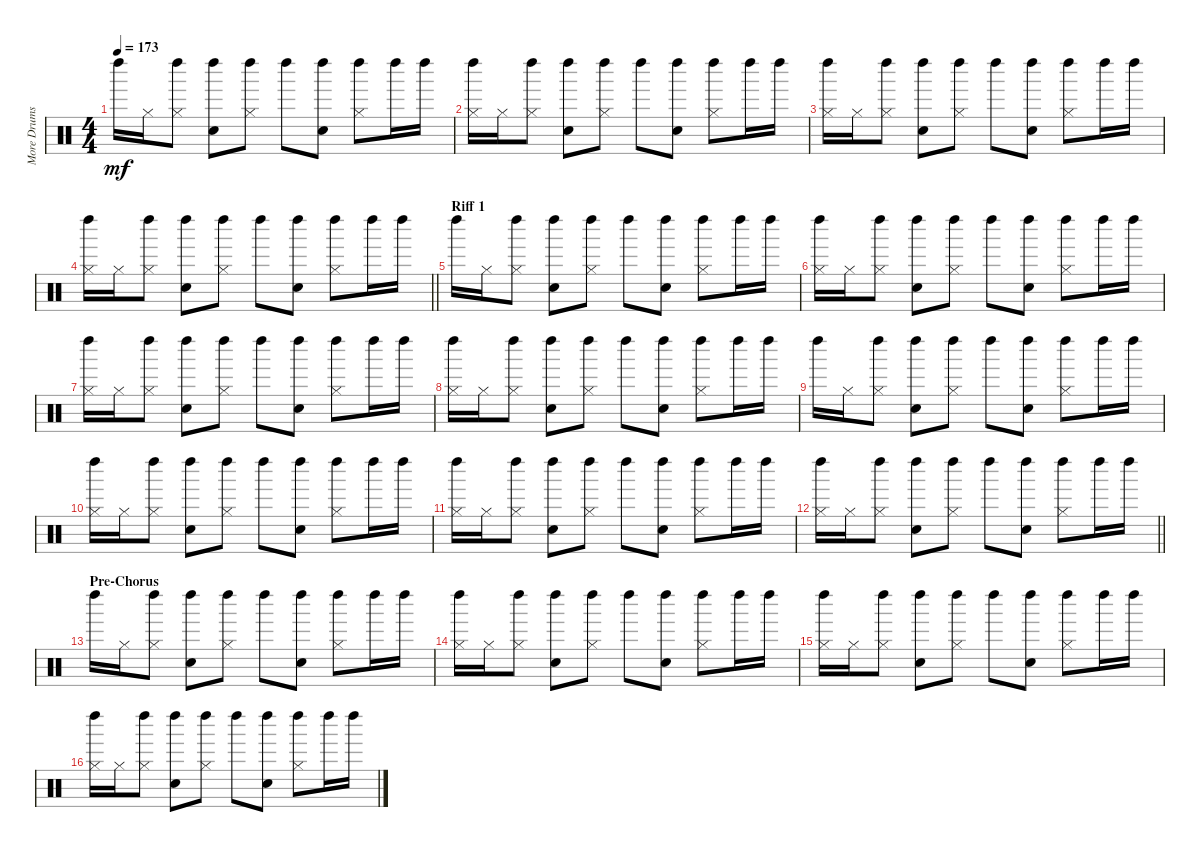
\track ("More Drums" "More Drums") {instrument percussion}
\staff {score}
\articulation defaults
\ts (4 4)
\tempo 173
\clef neutral
\ks c "Left Maraca (hit)".16{dy mf} "Hi-Hat (closed)".16
("Hi-Hat (closed)" "Left Maraca (hit)").8 ("Snare (hit) 2" "Left Maraca (hit)").8 ("Hi-Hat (closed)" "Left Maraca (hit)").8 "Left Maraca (hit)".8 ("Snare (hit) 2" "Left Maraca (hit)").8 ("Hi-Hat (closed)" "Left Maraca (hit)").8 "Left Maraca (hit)".16 "Left Maraca (hit)".16 |
("Hi-Hat (closed)" "Left Maraca (hit)").16 "Hi-Hat (closed)".16 ("Hi-Hat (closed)" "Left Maraca (hit)").8 ("Snare (hit) 2" "Left Maraca (hit)").8 ("Hi-Hat (closed)" "Left Maraca (hit)").8 "Left Maraca (hit)".8 ("Snare (hit) 2" "Left Maraca (hit)").8 ("Hi-Hat (closed)" "Left Maraca (hit)").8 "Left Maraca (hit)".16 "Left Maraca (hit)".16 |
("Hi-Hat (closed)" "Left Maraca (hit)").16 "Hi-Hat (closed)".16 ("Hi-Hat (closed)" "Left Maraca (hit)").8 ("Snare (hit) 2" "Left Maraca (hit)").8 ("Hi-Hat (closed)" "Left Maraca (hit)").8 "Left Maraca (hit)".8 ("Snare (hit) 2" "Left Maraca (hit)").8 ("Hi-Hat (closed)" "Left Maraca (hit)").8 "Left Maraca (hit)".16 "Left Maraca (hit)".16 |
\barLineRight lightlight
("Hi-Hat (closed)" "Left Maraca (hit)").16 "Hi-Hat (closed)".16 ("Hi-Hat (closed)" "Left Maraca (hit)").8 ("Snare (hit) 2" "Left Maraca (hit)").8 ("Hi-Hat (closed)" "Left Maraca (hit)").8 "Left Maraca (hit)".8 ("Snare (hit) 2" "Left Maraca (hit)").8 ("Hi-Hat (closed)" "Left Maraca (hit)").8 "Left Maraca (hit)".16 "Left Maraca (hit)".16 |
\section ("" "Riff 1")
"Left Maraca (hit)".16 "Hi-Hat (closed)".16 ("Hi-Hat (closed)" "Left Maraca (hit)").8 ("Snare (hit) 2" "Left Maraca (hit)").8 ("Hi-Hat (closed)" "Left Maraca (hit)").8 "Left Maraca (hit)".8 ("Snare (hit) 2" "Left Maraca (hit)").8 ("Hi-Hat (closed)" "Left Maraca (hit)").8 "Left Maraca (hit)".16 "Left Maraca (hit)".16 |
("Hi-Hat (closed)" "Left Maraca (hit)").16 "Hi-Hat (closed)".16 ("Hi-Hat (closed)" "Left Maraca (hit)").8 ("Snare (hit) 2" "Left Maraca (hit)").8 ("Hi-Hat (closed)" "Left Maraca (hit)").8 "Left Maraca (hit)".8 ("Snare (hit) 2" "Left Maraca (hit)").8 ("Hi-Hat (closed)" "Left Maraca (hit)").8 "Left Maraca (hit)".16 "Left Maraca (hit)".16 |
("Hi-Hat (closed)" "Left Maraca (hit)").16 "Hi-Hat (closed)".16 ("Hi-Hat (closed)" "Left Maraca (hit)").8 ("Snare (hit) 2" "Left Maraca (hit)").8 ("Hi-Hat (closed)" "Left Maraca (hit)").8 "Left Maraca (hit)".8 ("Snare (hit) 2" "Left Maraca (hit)").8 ("Hi-Hat (closed)" "Left Maraca (hit)").8 "Left Maraca (hit)".16 "Left Maraca (hit)".16 |
("Hi-Hat (closed)" "Left Maraca (hit)").16 "Hi-Hat (closed)".16 ("Hi-Hat (closed)" "Left Maraca (hit)").8 ("Snare (hit) 2" "Left Maraca (hit)").8 ("Hi-Hat (closed)" "Left Maraca (hit)").8 "Left Maraca (hit)".8 ("Snare (hit) 2" "Left Maraca (hit)").8 ("Hi-Hat (closed)" "Left Maraca (hit)").8 "Left Maraca (hit)".16 "Left Maraca (hit)".16 |
"Left Maraca (hit)".16 "Hi-Hat (closed)".16 ("Hi-Hat (closed)" "Left Maraca (hit)").8 ("Snare (hit) 2" "Left Maraca (hit)").8 ("Hi-Hat (closed)" "Left Maraca (hit)").8 "Left Maraca (hit)".8 ("Snare (hit) 2" "Left Maraca (hit)").8 ("Hi-Hat (closed)" "Left Maraca (hit)").8 "Left Maraca (hit)".16 "Left Maraca (hit)".16 |
("Hi-Hat (closed)" "Left Maraca (hit)").16 "Hi-Hat (closed)".16 ("Hi-Hat (closed)" "Left Maraca (hit)").8 ("Snare (hit) 2" "Left Maraca (hit)").8 ("Hi-Hat (closed)" "Left Maraca (hit)").8 "Left Maraca (hit)".8 ("Snare (hit) 2" "Left Maraca (hit)").8 ("Hi-Hat (closed)" "Left Maraca (hit)").8 "Left Maraca (hit)".16 "Left Maraca (hit)".16 |
("Hi-Hat (closed)" "Left Maraca (hit)").16 "Hi-Hat (closed)".16 ("Hi-Hat (closed)" "Left Maraca (hit)").8 ("Snare (hit) 2" "Left Maraca (hit)").8 ("Hi-Hat (closed)" "Left Maraca (hit)").8 "Left Maraca (hit)".8 ("Snare (hit) 2" "Left Maraca (hit)").8 ("Hi-Hat (closed)" "Left Maraca (hit)").8 "Left Maraca (hit)".16 "Left Maraca (hit)".16 |
\barLineRight lightlight
("Hi-Hat (closed)" "Left Maraca (hit)").16 "Hi-Hat (closed)".16 ("Hi-Hat (closed)" "Left Maraca (hit)").8 ("Snare (hit) 2" "Left Maraca (hit)").8 ("Hi-Hat (closed)" "Left Maraca (hit)").8 "Left Maraca (hit)".8 ("Snare (hit) 2" "Left Maraca (hit)").8 ("Hi-Hat (closed)" "Left Maraca (hit)").8 "Left Maraca (hit)".16 "Left Maraca (hit)".16 |
\section ("" "Pre-Chorus")
"Left Maraca (hit)".16 "Hi-Hat (closed)".16 ("Hi-Hat (closed)" "Left Maraca (hit)").8 ("Snare (hit) 2" "Left Maraca (hit)").8 ("Hi-Hat (closed)" "Left Maraca (hit)").8 "Left Maraca (hit)".8 ("Snare (hit) 2" "Left Maraca (hit)").8 ("Hi-Hat (closed)" "Left Maraca (hit)").8 "Left Maraca (hit)".16 "Left Maraca (hit)".16 |
("Hi-Hat (closed)" "Left Maraca (hit)").16 "Hi-Hat (closed)".16 ("Hi-Hat (closed)" "Left Maraca (hit)").8 ("Snare (hit) 2" "Left Maraca (hit)").8 ("Hi-Hat (closed)" "Left Maraca (hit)").8 "Left Maraca (hit)".8 ("Snare (hit) 2" "Left Maraca (hit)").8 ("Hi-Hat (closed)" "Left Maraca (hit)").8 "Left Maraca (hit)".16 "Left Maraca (hit)".16 |
("Hi-Hat (closed)" "Left Maraca (hit)").16 "Hi-Hat (closed)".16 ("Hi-Hat (closed)" "Left Maraca (hit)").8 ("Snare (hit) 2" "Left Maraca (hit)").8 ("Hi-Hat (closed)" "Left Maraca (hit)").8 "Left Maraca (hit)".8 ("Snare (hit) 2" "Left Maraca (hit)").8 ("Hi-Hat (closed)" "Left Maraca (hit)").8 "Left Maraca (hit)".16 "Left Maraca (hit)".16 |
("Hi-Hat (closed)" "Left Maraca (hit)").16 "Hi-Hat (closed)".16 ("Hi-Hat (closed)" "Left Maraca (hit)").8 ("Snare (hit) 2" "Left Maraca (hit)").8 ("Hi-Hat (closed)" "Left Maraca (hit)").8 "Left Maraca (hit)".8 ("Snare (hit) 2" "Left Maraca (hit)").8 ("Hi-Hat (closed)" "Left Maraca (hit)").8 "Left Maraca (hit)".16 "Left Maraca (hit)".16
